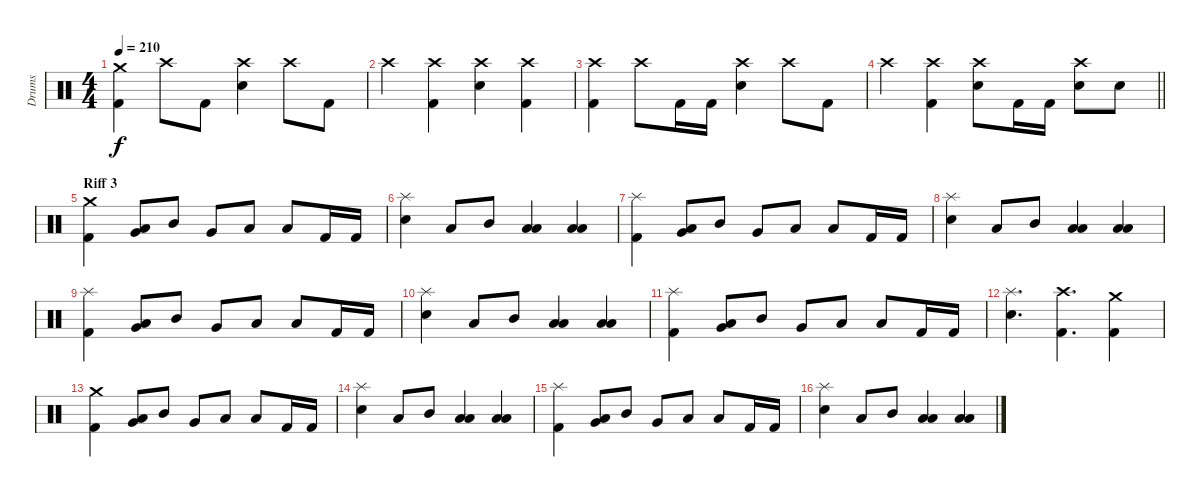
\track ("Drums" "Drums") {instrument percussion}
\staff {score}
\articulation defaults
\ts (4 4)
\tempo 210
\clef neutral
\ks c
("Kick (hit) 2" "Crash medium (hit)").4{dy f} "Crash high (hit)".8 "Kick (hit) 2".8 ("Electric Snare (hit)" "Crash high (hit)").4 "Crash high (hit)".8 "Kick (hit) 2".8 |
"Crash high (hit)".4 ("Kick (hit) 2" "Crash high (hit)").4 ("Electric Snare (hit)" "Crash high (hit)").4 ("Kick (hit) 2" "Crash high (hit)").4 |
("Kick (hit) 2" "Crash high (hit)").4 "Crash high (hit)".8 "Kick (hit) 2".16 "Kick (hit) 2".16 ("Electric Snare (hit)" "Crash high (hit)").4 "Crash high (hit)".8 "Kick (hit) 2".8 |
\barLineRight lightlight "Crash high (hit)".4
("Kick (hit) 2" "Crash high (hit)").4 ("Electric Snare (hit)" "Crash high (hit)").8 "Kick (hit) 2".16 "Kick (hit) 2".16 ("Electric Snare (hit)" "Crash high (hit)").8 "Electric Snare (hit)".8 |
\section ("" "Riff 3")
("Crash medium (hit)" "Kick (hit) 2").4 ("Very Low Tom (hit)" "Low Floor Tom (hit)").8 "Mid Tom (hit)".8 "Very Low Tom (hit)".8 "Low Floor Tom (hit)".8 "Low Floor Tom (hit)".8 "Kick (hit) 2".16 "Kick (hit) 2".16 |
("Splash (hit)" "Electric Snare (hit)").4 "Low Floor Tom (hit)".8 "Mid Tom (hit)".8 ("Low Tom (hit)" "Low Floor Tom (hit)").4 ("Low Tom (hit)" "Low Floor Tom (hit)").4 |
("Splash (hit)" "Kick (hit) 2").4 ("Very Low Tom (hit)" "Low Floor Tom (hit)").8 "Mid Tom (hit)".8 "Very Low Tom (hit)".8 "Low Floor Tom (hit)".8 "Low Floor Tom (hit)".8 "Kick (hit) 2".16 "Kick (hit) 2".16 |
("Splash (hit)" "Electric Snare (hit)").4 "Low Floor Tom (hit)".8 "Mid Tom (hit)".8 ("Low Tom (hit)" "Low Floor Tom (hit)").4 ("Low Tom (hit)" "Low Floor Tom (hit)").4 |
("Splash (hit)" "Kick (hit) 2").4 ("Very Low Tom (hit)" "Low Floor Tom (hit)").8 "Mid Tom (hit)".8 "Very Low Tom (hit)".8 "Low Floor Tom (hit)".8 "Low Floor Tom (hit)".8 "Kick (hit) 2".16 "Kick (hit) 2".16 |
("Splash (hit)" "Electric Snare (hit)").4 "Low Floor Tom (hit)".8 "Mid Tom (hit)".8 ("Low Tom (hit)" "Low Floor Tom (hit)").4 ("Low Tom (hit)" "Low Floor Tom (hit)").4 |
("Splash (hit)" "Kick (hit) 2").4 ("Very Low Tom (hit)" "Low Floor Tom (hit)").8 "Mid Tom (hit)".8 "Very Low Tom (hit)".8 "Low Floor Tom (hit)".8 "Low Floor Tom (hit)".8 "Kick (hit) 2".16 "Kick (hit) 2".16 |
("Electric Snare (hit)" "Splash (hit)").4{d} ("Kick (hit) 2" "Crash high (hit)").4{d} ("Kick (hit) 2" "Crash medium (hit)").4 |
("Crash medium (hit)" "Kick (hit) 2").4 ("Very Low Tom (hit)" "Low Floor Tom (hit)").8 "Mid Tom (hit)".8 "Very Low Tom (hit)".8 "Low Floor Tom (hit)".8 "Low Floor Tom (hit)".8 "Kick (hit) 2".16 "Kick (hit) 2".16 |
("Splash (hit)" "Electric Snare (hit)").4 "Low Floor Tom (hit)".8 "Mid Tom (hit)".8 ("Low Tom (hit)" "Low Floor Tom (hit)").4 ("Low Tom (hit)" "Low Floor Tom (hit)").4 |
("Splash (hit)" "Kick (hit) 2").4 ("Very Low Tom (hit)" "Low Floor Tom (hit)").8 "Mid Tom (hit)".8 "Very Low Tom (hit)".8 "Low Floor Tom (hit)".8 "Low Floor Tom (hit)".8 "Kick (hit) 2".16 "Kick (hit) 2".16 |
("Splash (hit)" "Electric Snare (hit)").4 "Low Floor Tom (hit)".8 "Mid Tom (hit)".8 ("Low Tom (hit)" "Low Floor Tom (hit)").4 ("Low Tom (hit)" "Low Floor Tom (hit)").4
